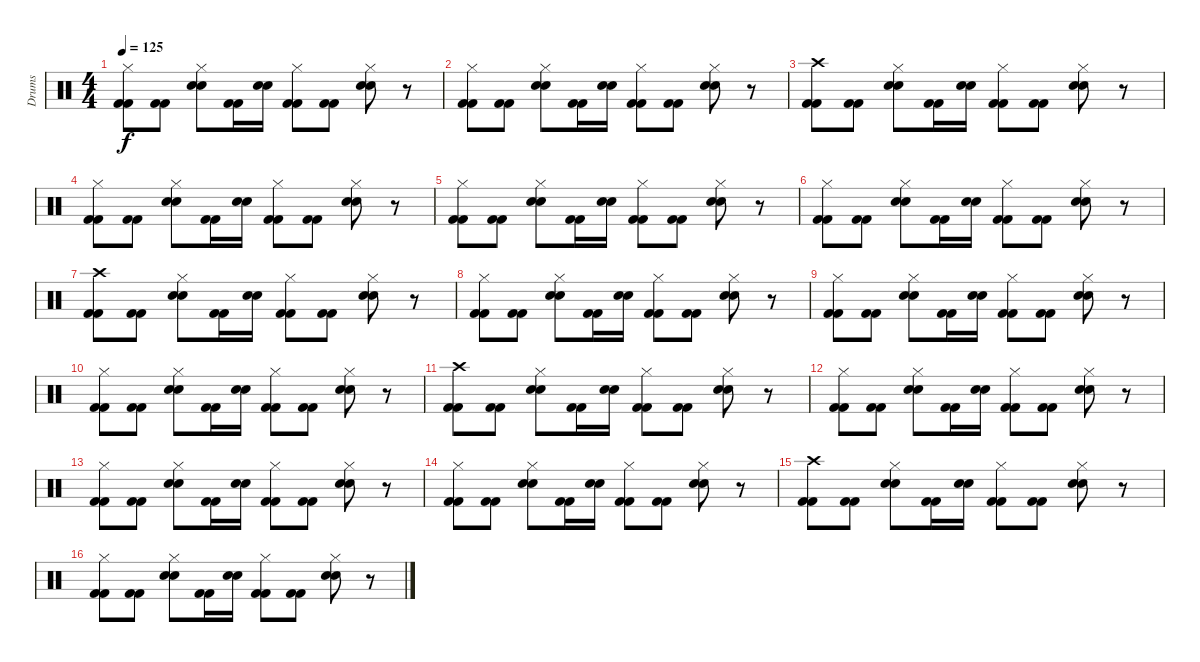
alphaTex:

\track ("Drums" "Drums") {instrument percussion}
\staff {score}
\articulation defaults
\ts (4 4)
\tempo 125
\clef neutral
\ks c
("Hi-Hat (closed)" "Kick (hit) 2" "Kick (hit) 2").8{dy f} ("Kick (hit) 2" "Kick (hit) 2").8 ("Hi-Hat (closed)" "Hand Clap (hit)" "Snare (hit) 2").8 ("Kick (hit) 2" "Kick (hit) 2").16 ("Hand Clap (hit)" "Snare (hit) 2").16 ("Hi-Hat (closed)" "Kick (hit) 2" "Kick (hit) 2").8 ("Kick (hit) 2" "Kick (hit) 2").8 ("Hi-Hat (closed)" "Hand Clap (hit)" "Snare (hit) 2").8 r.8 |
("Hi-Hat (closed)" "Kick (hit) 2" "Kick (hit) 2").8 ("Kick (hit) 2" "Kick (hit) 2").8 ("Hi-Hat (closed)" "Hand Clap (hit)" "Snare (hit) 2").8 ("Kick (hit) 2" "Kick (hit) 2").16 ("Hand Clap (hit)" "Snare (hit) 2").16 ("Hi-Hat (closed)" "Kick (hit) 2" "Kick (hit) 2").8 ("Kick (hit) 2" "Kick (hit) 2").8 ("Hi-Hat (closed)" "Hand Clap (hit)" "Snare (hit) 2").8 r.8 |
("Crash high (hit)" "Kick (hit) 2" "Kick (hit) 2").8{volume 11} ("Kick (hit) 2" "Kick (hit) 2").8 ("Hi-Hat (closed)" "Hand Clap (hit)" "Snare (hit) 2").8 ("Kick (hit) 2" "Kick (hit) 2").16 ("Hand Clap (hit)" "Snare (hit) 2").16 ("Hi-Hat (closed)" "Kick (hit) 2" "Kick (hit) 2").8 ("Kick (hit) 2" "Kick (hit) 2").8 ("Hi-Hat (closed)" "Hand Clap (hit)" "Snare (hit) 2").8 r.8 |
("Hi-Hat (closed)" "Kick (hit) 2" "Kick (hit) 2").8 ("Kick (hit) 2" "Kick (hit) 2").8 ("Hi-Hat (closed)" "Hand Clap (hit)" "Snare (hit) 2").8 ("Kick (hit) 2" "Kick (hit) 2").16 ("Hand Clap (hit)" "Snare (hit) 2").16 ("Hi-Hat (closed)" "Kick (hit) 2" "Kick (hit) 2").8 ("Kick (hit) 2" "Kick (hit) 2").8 ("Hi-Hat (closed)" "Hand Clap (hit)" "Snare (hit) 2").8 r.8 |
("Hi-Hat (closed)" "Kick (hit) 2" "Kick (hit) 2").8 ("Kick (hit) 2" "Kick (hit) 2").8 ("Hi-Hat (closed)" "Hand Clap (hit)" "Snare (hit) 2").8 ("Kick (hit) 2" "Kick (hit) 2").16 ("Hand Clap (hit)" "Snare (hit) 2").16 ("Hi-Hat (closed)" "Kick (hit) 2" "Kick (hit) 2").8 ("Kick (hit) 2" "Kick (hit) 2").8 ("Hi-Hat (closed)" "Hand Clap (hit)" "Snare (hit) 2").8 r.8 |
("Hi-Hat (closed)" "Kick (hit) 2" "Kick (hit) 2").8 ("Kick (hit) 2" "Kick (hit) 2").8 ("Hi-Hat (closed)" "Hand Clap (hit)" "Snare (hit) 2").8 ("Kick (hit) 2" "Kick (hit) 2").16 ("Hand Clap (hit)" "Snare (hit) 2").16 ("Hi-Hat (closed)" "Kick (hit) 2" "Kick (hit) 2").8 ("Kick (hit) 2" "Kick (hit) 2").8 ("Hi-Hat (closed)" "Hand Clap (hit)" "Snare (hit) 2").8 r.8 |
("Crash high (hit)" "Kick (hit) 2" "Kick (hit) 2").8 ("Kick (hit) 2" "Kick (hit) 2").8 ("Hi-Hat (closed)" "Hand Clap (hit)" "Snare (hit) 2").8 ("Kick (hit) 2" "Kick (hit) 2").16 ("Hand Clap (hit)" "Snare (hit) 2").16 ("Hi-Hat (closed)" "Kick (hit) 2" "Kick (hit) 2").8 ("Kick (hit) 2" "Kick (hit) 2").8 ("Hi-Hat (closed)" "Hand Clap (hit)" "Snare (hit) 2").8 r.8 |
("Hi-Hat (closed)" "Kick (hit) 2" "Kick (hit) 2").8 ("Kick (hit) 2" "Kick (hit) 2").8 ("Hi-Hat (closed)" "Hand Clap (hit)" "Snare (hit) 2").8 ("Kick (hit) 2" "Kick (hit) 2").16 ("Hand Clap (hit)" "Snare (hit) 2").16 ("Hi-Hat (closed)" "Kick (hit) 2" "Kick (hit) 2").8 ("Kick (hit) 2" "Kick (hit) 2").8 ("Hi-Hat (closed)" "Hand Clap (hit)" "Snare (hit) 2").8 r.8 |
("Hi-Hat (closed)" "Kick (hit) 2" "Kick (hit) 2").8 ("Kick (hit) 2" "Kick (hit) 2").8 ("Hi-Hat (closed)" "Hand Clap (hit)" "Snare (hit) 2").8 ("Kick (hit) 2" "Kick (hit) 2").16 ("Hand Clap (hit)" "Snare (hit) 2").16 ("Hi-Hat (closed)" "Kick (hit) 2" "Kick (hit) 2").8 ("Kick (hit) 2" "Kick (hit) 2").8 ("Hi-Hat (closed)" "Hand Clap (hit)" "Snare (hit) 2").8 r.8 |
("Hi-Hat (closed)" "Kick (hit) 2" "Kick (hit) 2").8 ("Kick (hit) 2" "Kick (hit) 2").8 ("Hi-Hat (closed)" "Hand Clap (hit)" "Snare (hit) 2").8 ("Kick (hit) 2" "Kick (hit) 2").16 ("Hand Clap (hit)" "Snare (hit) 2").16 ("Hi-Hat (closed)" "Kick (hit) 2" "Kick (hit) 2").8 ("Kick (hit) 2" "Kick (hit) 2").8 ("Hi-Hat (closed)" "Hand Clap (hit)" "Snare (hit) 2").8 r.8 |
("Crash high (hit)" "Kick (hit) 2" "Kick (hit) 2").8 ("Kick (hit) 2" "Kick (hit) 2").8 ("Hi-Hat (closed)" "Hand Clap (hit)" "Snare (hit) 2").8 ("Kick (hit) 2" "Kick (hit) 2").16 ("Hand Clap (hit)" "Snare (hit) 2").16 ("Hi-Hat (closed)" "Kick (hit) 2" "Kick (hit) 2").8 ("Kick (hit) 2" "Kick (hit) 2").8 ("Hi-Hat (closed)" "Hand Clap (hit)" "Snare (hit) 2").8 r.8 |
("Hi-Hat (closed)" "Kick (hit) 2" "Kick (hit) 2").8 ("Kick (hit) 2" "Kick (hit) 2").8 ("Hi-Hat (closed)" "Hand Clap (hit)" "Snare (hit) 2").8 ("Kick (hit) 2" "Kick (hit) 2").16 ("Hand Clap (hit)" "Snare (hit) 2").16 ("Hi-Hat (closed)" "Kick (hit) 2" "Kick (hit) 2").8 ("Kick (hit) 2" "Kick (hit) 2").8 ("Hi-Hat (closed)" "Hand Clap (hit)" "Snare (hit) 2").8 r.8 |
("Hi-Hat (closed)" "Kick (hit) 2" "Kick (hit) 2").8 ("Kick (hit) 2" "Kick (hit) 2").8 ("Hi-Hat (closed)" "Hand Clap (hit)" "Snare (hit) 2").8 ("Kick (hit) 2" "Kick (hit) 2").16 ("Hand Clap (hit)" "Snare (hit) 2").16 ("Hi-Hat (closed)" "Kick (hit) 2" "Kick (hit) 2").8 ("Kick (hit) 2" "Kick (hit) 2").8 ("Hi-Hat (closed)" "Hand Clap (hit)" "Snare (hit) 2").8 r.8 |
("Hi-Hat (closed)" "Kick (hit) 2" "Kick (hit) 2").8 ("Kick (hit) 2" "Kick (hit) 2").8 ("Hi-Hat (closed)" "Hand Clap (hit)" "Snare (hit) 2").8 ("Kick (hit) 2" "Kick (hit) 2").16 ("Hand Clap (hit)" "Snare (hit) 2").16 ("Hi-Hat (closed)" "Kick (hit) 2" "Kick (hit) 2").8 ("Kick (hit) 2" "Kick (hit) 2").8 ("Hi-Hat (closed)" "Hand Clap (hit)" "Snare (hit) 2").8 r.8 |
("Crash high (hit)" "Kick (hit) 2" "Kick (hit) 2").8 ("Kick (hit) 2" "Kick (hit) 2").8 ("Hi-Hat (closed)" "Hand Clap (hit)" "Snare (hit) 2").8 ("Kick (hit) 2" "Kick (hit) 2").16 ("Hand Clap (hit)" "Snare (hit) 2").16 ("Hi-Hat (closed)" "Kick (hit) 2" "Kick (hit) 2").8 ("Kick (hit) 2" "Kick (hit) 2").8 ("Hi-Hat (closed)" "Hand Clap (hit)" "Snare (hit) 2").8 r.8 |
("Hi-Hat (closed)" "Kick (hit) 2" "Kick (hit) 2").8 ("Kick (hit) 2" "Kick (hit) 2").8 ("Hi-Hat (closed)" "Hand Clap (hit)" "Snare (hit) 2").8 ("Kick (hit) 2" "Kick (hit) 2").16 ("Hand Clap (hit)" "Snare (hit) 2").16 ("Hi-Hat (closed)" "Kick (hit) 2" "Kick (hit) 2").8 ("Kick (hit) 2" "Kick (hit) 2").8 ("Hi-Hat (closed)" "Hand Clap (hit)" "Snare (hit) 2").8 r.8
